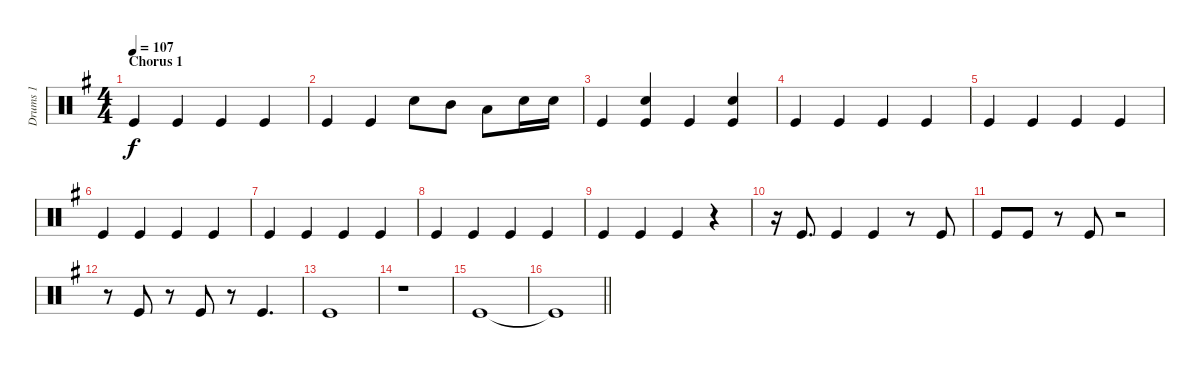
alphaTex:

\track ("Drums 1" "Drums 1") {instrument percussion}
\staff {score}
\articulation defaults
\ts (4 4)
\section ("" "Chorus 1")
\tempo 107
\clef neutral
\ks g "Kick (hit)".4{dy f} "Kick (hit)".4 "Kick (hit)".4 "Kick (hit)".4
|
"Kick (hit)".4 "Kick (hit)".4 "Snare (hit) 2".8 "Mid Tom (hit)".8 "Low Tom (hit)".8 "Snare (hit) 2".16 "Snare (hit) 2".16 |
"Kick (hit)".4 ("Snare (hit) 2" "Kick (hit)").4 "Kick (hit)".4 ("Snare (hit) 2" "Kick (hit)").4 |
"Kick (hit)".4 "Kick (hit)".4 "Kick (hit)".4 "Kick (hit)".4 |
"Kick (hit)".4 "Kick (hit)".4 "Kick (hit)".4 "Kick (hit)".4 |
"Kick (hit)".4 "Kick (hit)".4 "Kick (hit)".4 "Kick (hit)".4 |
"Kick (hit)".4 "Kick (hit)".4 "Kick (hit)".4 "Kick (hit)".4 |
"Kick (hit)".4 "Kick (hit)".4 "Kick (hit)".4 "Kick (hit)".4 |
"Kick (hit)".4 "Kick (hit)".4 "Kick (hit)".4 r.4 |
r.16 "Kick (hit)".8{d} "Kick (hit)".4 "Kick (hit)".4 r.8 "Kick (hit)".8 |
"Kick (hit)".8 "Kick (hit)".8 r.8 "Kick (hit)".8 r.2 |
r.8 "Kick (hit)".8 r.8 "Kick (hit)".8 r.8 "Kick (hit)".4{d} |
"Kick (hit)".1 |
r.1 |
"Kick (hit)".1 |
\barLineRight lightlight "Kick (hit)"{t}.1
